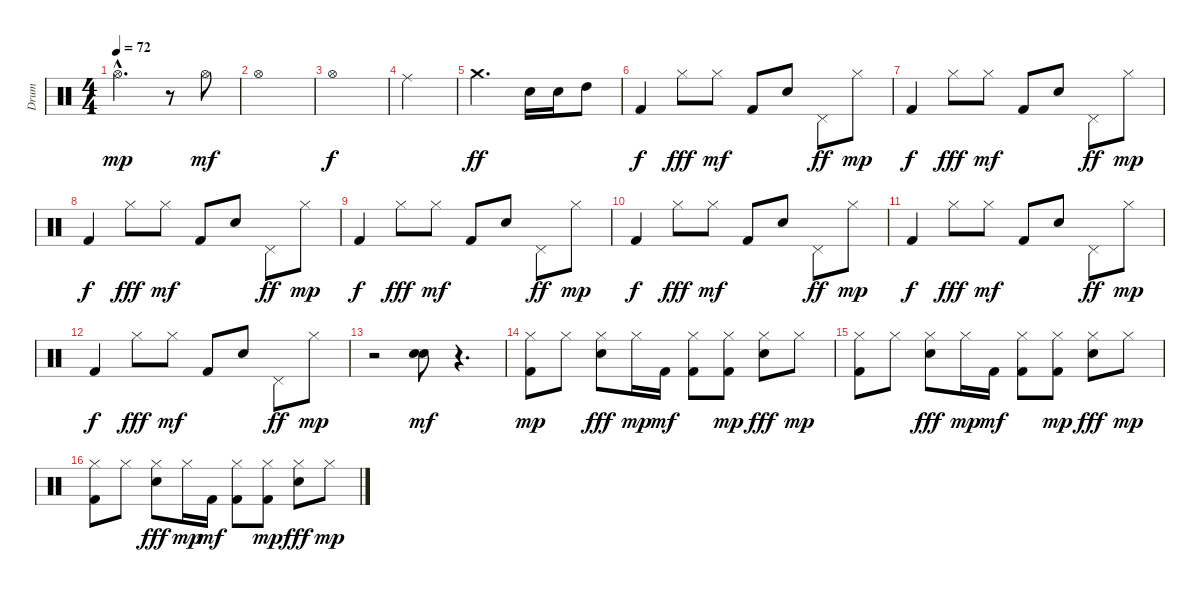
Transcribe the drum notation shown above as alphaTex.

\track ("Drum" "Drum") {instrument percussion}
\staff {score}
\articulation defaults
\ts (4 4)
\tempo 72
\clef neutral
\ks c "Hi-Hat (open)"{hac}.2{d dy mp}
r.8 "Hi-Hat (open)".8{dy mf} |
"Hi-Hat (open)".1 |
"Hi-Hat (open)".1{dy f} |
"Ride (middle)".2 |
"Crash medium (hit)".2{d dy ff} "Snare (hit) 2".16 "Electric Snare (hit)".16 "High Tom (hit)".8 |
"Kick (hit) 2".4{dy f} "Hi-Hat (closed)".8{dy fff} "Hi-Hat (closed)".8{dy mf} "Kick (hit) 2".8 "Snare (hit) 2".8 "Pedal Hi-Hat (hit)".8{dy ff} "Hi-Hat (closed)".8{dy mp} |
"Kick (hit) 2".4{dy f} "Hi-Hat (closed)".8{dy fff} "Hi-Hat (closed)".8{dy mf} "Kick (hit) 2".8 "Snare (hit) 2".8 "Pedal Hi-Hat (hit)".8{dy ff} "Hi-Hat (closed)".8{dy mp} |
"Kick (hit) 2".4{dy f} "Hi-Hat (closed)".8{dy fff} "Hi-Hat (closed)".8{dy mf} "Kick (hit) 2".8 "Snare (hit) 2".8 "Pedal Hi-Hat (hit)".8{dy ff} "Hi-Hat (closed)".8{dy mp} |
"Kick (hit) 2".4{dy f} "Hi-Hat (closed)".8{dy fff} "Hi-Hat (closed)".8{dy mf} "Kick (hit) 2".8 "Snare (hit) 2".8 "Pedal Hi-Hat (hit)".8{dy ff} "Hi-Hat (closed)".8{dy mp} |
"Kick (hit) 2".4{dy f} "Hi-Hat (closed)".8{dy fff} "Hi-Hat (closed)".8{dy mf} "Kick (hit) 2".8 "Snare (hit) 2".8 "Pedal Hi-Hat (hit)".8{dy ff} "Hi-Hat (closed)".8{dy mp} |
"Kick (hit) 2".4{dy f} "Hi-Hat (closed)".8{dy fff} "Hi-Hat (closed)".8{dy mf} "Kick (hit) 2".8 "Snare (hit) 2".8 "Pedal Hi-Hat (hit)".8{dy ff} "Hi-Hat (closed)".8{dy mp} |
"Kick (hit) 2".4{dy f} "Hi-Hat (closed)".8{dy fff} "Hi-Hat (closed)".8{dy mf} "Kick (hit) 2".8 "Snare (hit) 2".8 "Pedal Hi-Hat (hit)".8{dy ff} "Hi-Hat (closed)".8{dy mp} |
r.2 ("Electric Snare (hit)" "Snare (hit) 2").8{dy mf} r.4{d} |
("Hi-Hat (closed)" "Kick (hit) 2").8{dy mp} "Hi-Hat (closed)".8 ("Hi-Hat (closed)" "Snare (hit) 2").8{dy fff} "Hi-Hat (closed)".16{dy mp} "Kick (hit) 2".16{dy mf} ("Hi-Hat (closed)" "Kick (hit) 2").8 ("Hi-Hat (closed)" "Kick (hit) 2").8{dy mp} ("Hi-Hat (closed)" "Snare (hit) 2").8{dy fff} "Hi-Hat (closed)".8{dy mp} |
("Hi-Hat (closed)" "Kick (hit) 2").8 "Hi-Hat (closed)".8 ("Hi-Hat (closed)" "Snare (hit) 2").8{dy fff} "Hi-Hat (closed)".16{dy mp} "Kick (hit) 2".16{dy mf} ("Hi-Hat (closed)" "Kick (hit) 2").8 ("Hi-Hat (closed)" "Kick (hit) 2").8{dy mp} ("Hi-Hat (closed)" "Snare (hit) 2").8{dy fff} "Hi-Hat (closed)".8{dy mp} |
("Hi-Hat (closed)" "Kick (hit) 2").8 "Hi-Hat (closed)".8 ("Hi-Hat (closed)" "Snare (hit) 2").8{dy fff} "Hi-Hat (closed)".16{dy mp} "Kick (hit) 2".16{dy mf} ("Hi-Hat (closed)" "Kick (hit) 2").8 ("Hi-Hat (closed)" "Kick (hit) 2").8{dy mp} ("Hi-Hat (closed)" "Snare (hit) 2").8{dy fff} "Hi-Hat (closed)".8{dy mp}
